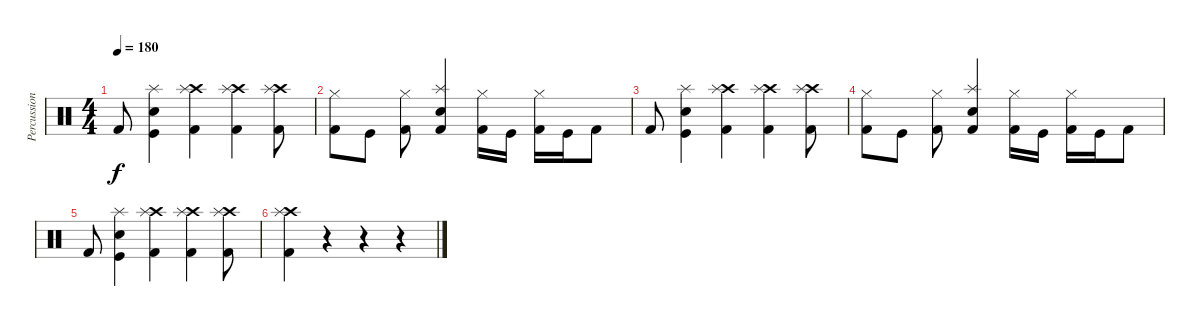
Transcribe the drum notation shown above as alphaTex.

\track ("Percussion" "Percussion") {instrument percussion}
\staff {score}
\articulation defaults
\ts (4 4)
\tempo 180
\clef neutral
\ks c "Kick (hit) 2".8{dy f}
("Splash (hit)" "Electric Snare (hit)" "Kick (hit)").4 ("Crash high (hit)" "Splash (hit)" "Kick (hit) 2").4 ("Crash high (hit)" "Splash (hit)" "Kick (hit) 2").4 ("Crash high (hit)" "Splash (hit)" "Kick (hit) 2").8 |
("Hi-Hat (closed)" "Kick (hit) 2").8 "Kick (hit)".8 ("Hi-Hat (closed)" "Kick (hit) 2").8 ("Splash (hit)" "Electric Snare (hit)" "Kick (hit) 2").4 ("Hi-Hat (closed)" "Kick (hit) 2").16 "Kick (hit)".16 ("Hi-Hat (closed)" "Kick (hit) 2").16 "Kick (hit)".16 "Kick (hit) 2".8 |
"Kick (hit) 2".8 ("Splash (hit)" "Electric Snare (hit)" "Kick (hit)").4 ("Crash high (hit)" "Splash (hit)" "Kick (hit) 2").4 ("Crash high (hit)" "Splash (hit)" "Kick (hit) 2").4 ("Crash high (hit)" "Splash (hit)" "Kick (hit) 2").8 |
("Hi-Hat (closed)" "Kick (hit) 2").8 "Kick (hit)".8 ("Hi-Hat (closed)" "Kick (hit) 2").8 ("Splash (hit)" "Electric Snare (hit)" "Kick (hit) 2").4 ("Hi-Hat (closed)" "Kick (hit) 2").16 "Kick (hit)".16 ("Hi-Hat (closed)" "Kick (hit) 2").16 "Kick (hit)".16 "Kick (hit) 2".8 |
"Kick (hit) 2".8 ("Splash (hit)" "Electric Snare (hit)" "Kick (hit)").4 ("Crash high (hit)" "Splash (hit)" "Kick (hit) 2").4 ("Crash high (hit)" "Splash (hit)" "Kick (hit) 2").4 ("Crash high (hit)" "Splash (hit)" "Kick (hit) 2").8 |
("Crash high (hit)" "Splash (hit)" "Kick (hit) 2").4 r.4 r.4 r.4
